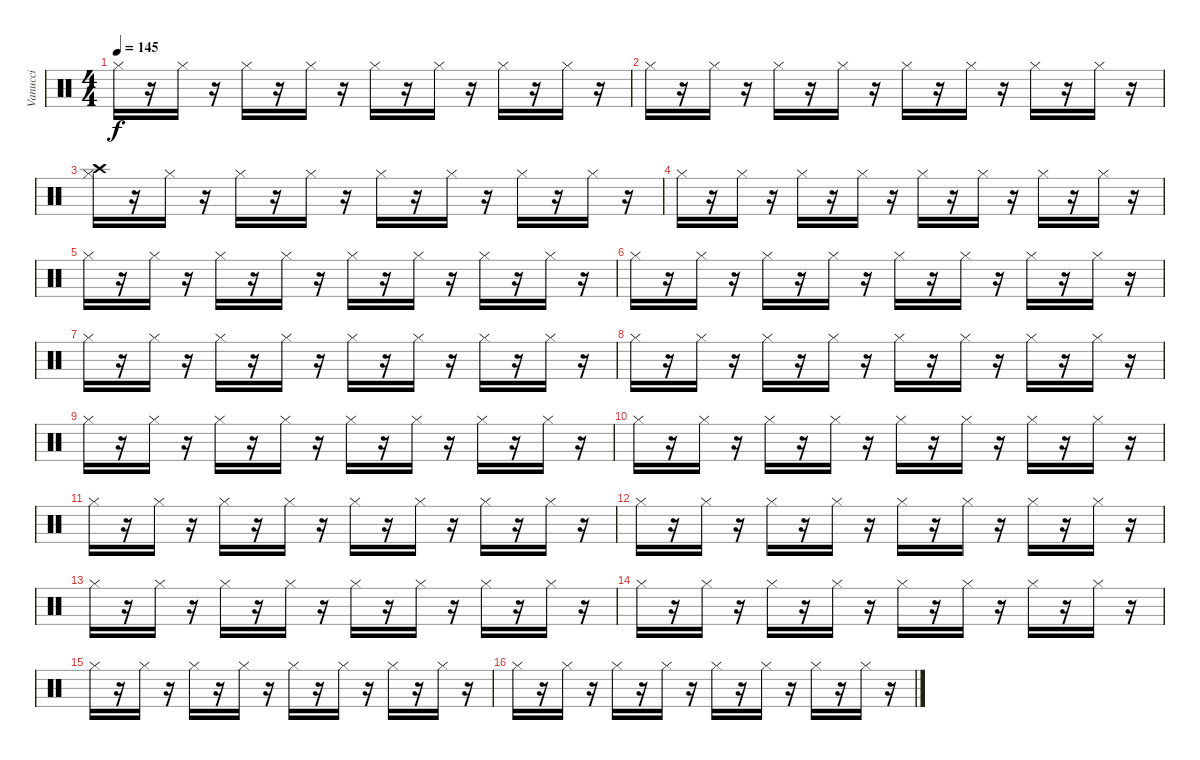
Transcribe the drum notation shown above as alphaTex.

\track ("Vanucci" "Vanucci") {instrument percussion}
\staff {score}
\articulation defaults
\ts (4 4)
\tempo 145
\clef neutral
\ks c "Hi-Hat (closed)".16{dy f}
r.16 "Hi-Hat (closed)".16 r.16 "Hi-Hat (closed)".16 r.16 "Hi-Hat (closed)".16 r.16 "Hi-Hat (closed)".16 r.16 "Hi-Hat (closed)".16 r.16 "Hi-Hat (closed)".16 r.16 "Hi-Hat (closed)".16 r.16 |
"Hi-Hat (closed)".16 r.16 "Hi-Hat (closed)".16 r.16 "Hi-Hat (closed)".16 r.16 "Hi-Hat (closed)".16 r.16 "Hi-Hat (closed)".16 r.16 "Hi-Hat (closed)".16 r.16 "Hi-Hat (closed)".16 r.16 "Hi-Hat (closed)".16 r.16 |
("Crash high (hit)" "Hi-Hat (closed)").16 r.16 "Hi-Hat (closed)".16 r.16 "Hi-Hat (closed)".16 r.16 "Hi-Hat (closed)".16 r.16 "Hi-Hat (closed)".16 r.16 "Hi-Hat (closed)".16 r.16 "Hi-Hat (closed)".16 r.16 "Hi-Hat (closed)".16 r.16 |
"Hi-Hat (closed)".16 r.16 "Hi-Hat (closed)".16 r.16 "Hi-Hat (closed)".16 r.16 "Hi-Hat (closed)".16 r.16 "Hi-Hat (closed)".16 r.16 "Hi-Hat (closed)".16 r.16 "Hi-Hat (closed)".16 r.16 "Hi-Hat (closed)".16 r.16 |
"Hi-Hat (closed)".16 r.16 "Hi-Hat (closed)".16 r.16 "Hi-Hat (closed)".16 r.16 "Hi-Hat (closed)".16 r.16 "Hi-Hat (closed)".16 r.16 "Hi-Hat (closed)".16 r.16 "Hi-Hat (closed)".16 r.16 "Hi-Hat (closed)".16 r.16 |
"Hi-Hat (closed)".16 r.16 "Hi-Hat (closed)".16 r.16 "Hi-Hat (closed)".16 r.16 "Hi-Hat (closed)".16 r.16 "Hi-Hat (closed)".16 r.16 "Hi-Hat (closed)".16 r.16 "Hi-Hat (closed)".16 r.16 "Hi-Hat (closed)".16 r.16 |
"Hi-Hat (closed)".16 r.16 "Hi-Hat (closed)".16 r.16 "Hi-Hat (closed)".16 r.16 "Hi-Hat (closed)".16 r.16 "Hi-Hat (closed)".16 r.16 "Hi-Hat (closed)".16 r.16 "Hi-Hat (closed)".16 r.16 "Hi-Hat (closed)".16 r.16 |
"Hi-Hat (closed)".16 r.16 "Hi-Hat (closed)".16 r.16 "Hi-Hat (closed)".16 r.16 "Hi-Hat (closed)".16 r.16 "Hi-Hat (closed)".16 r.16 "Hi-Hat (closed)".16 r.16 "Hi-Hat (closed)".16 r.16 "Hi-Hat (closed)".16 r.16 |
"Hi-Hat (closed)".16 r.16 "Hi-Hat (closed)".16 r.16 "Hi-Hat (closed)".16 r.16 "Hi-Hat (closed)".16 r.16 "Hi-Hat (closed)".16 r.16 "Hi-Hat (closed)".16 r.16 "Hi-Hat (closed)".16 r.16 "Hi-Hat (closed)".16 r.16 |
"Hi-Hat (closed)".16 r.16 "Hi-Hat (closed)".16 r.16 "Hi-Hat (closed)".16 r.16 "Hi-Hat (closed)".16 r.16 "Hi-Hat (closed)".16 r.16 "Hi-Hat (closed)".16 r.16 "Hi-Hat (closed)".16 r.16 "Hi-Hat (closed)".16 r.16 |
"Hi-Hat (closed)".16 r.16 "Hi-Hat (closed)".16 r.16 "Hi-Hat (closed)".16 r.16 "Hi-Hat (closed)".16 r.16 "Hi-Hat (closed)".16 r.16 "Hi-Hat (closed)".16 r.16 "Hi-Hat (closed)".16 r.16 "Hi-Hat (closed)".16 r.16 |
"Hi-Hat (closed)".16 r.16 "Hi-Hat (closed)".16 r.16 "Hi-Hat (closed)".16 r.16 "Hi-Hat (closed)".16 r.16 "Hi-Hat (closed)".16 r.16 "Hi-Hat (closed)".16 r.16 "Hi-Hat (closed)".16 r.16 "Hi-Hat (closed)".16 r.16 |
"Hi-Hat (closed)".16 r.16 "Hi-Hat (closed)".16 r.16 "Hi-Hat (closed)".16 r.16 "Hi-Hat (closed)".16 r.16 "Hi-Hat (closed)".16 r.16 "Hi-Hat (closed)".16 r.16 "Hi-Hat (closed)".16 r.16 "Hi-Hat (closed)".16 r.16 |
"Hi-Hat (closed)".16 r.16 "Hi-Hat (closed)".16 r.16 "Hi-Hat (closed)".16 r.16 "Hi-Hat (closed)".16 r.16 "Hi-Hat (closed)".16 r.16 "Hi-Hat (closed)".16 r.16 "Hi-Hat (closed)".16 r.16 "Hi-Hat (closed)".16 r.16 |
"Hi-Hat (closed)".16 r.16 "Hi-Hat (closed)".16 r.16 "Hi-Hat (closed)".16 r.16 "Hi-Hat (closed)".16 r.16 "Hi-Hat (closed)".16 r.16 "Hi-Hat (closed)".16 r.16 "Hi-Hat (closed)".16 r.16 "Hi-Hat (closed)".16 r.16 |
"Hi-Hat (closed)".16 r.16 "Hi-Hat (closed)".16 r.16 "Hi-Hat (closed)".16 r.16 "Hi-Hat (closed)".16 r.16 "Hi-Hat (closed)".16 r.16 "Hi-Hat (closed)".16 r.16 "Hi-Hat (closed)".16 r.16 "Hi-Hat (closed)".16 r.16
